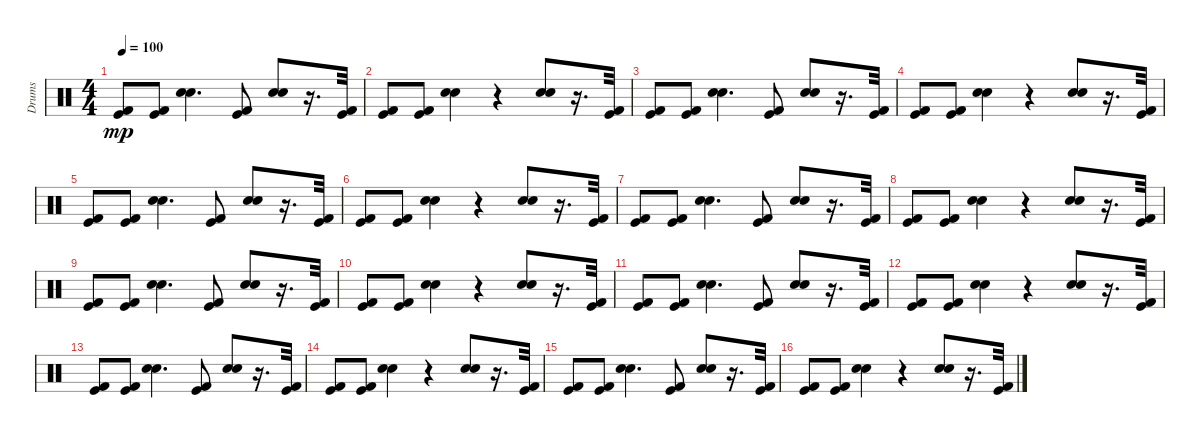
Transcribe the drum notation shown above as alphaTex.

\track ("Drums" "Drums") {instrument percussion}
\staff {score}
\articulation defaults
\ts (4 4)
\tempo 100
\clef neutral
\ks c
("Kick (hit)" "Kick (hit) 2").8{dy mp} ("Kick (hit)" "Kick (hit) 2").8 ("Snare (hit) 2" "Electric Snare (hit)").4{d} ("Kick (hit)" "Kick (hit) 2").8 ("Snare (hit) 2" "Electric Snare (hit)").8 r.16{d} ("Kick (hit)" "Kick (hit) 2").32 |
("Kick (hit)" "Kick (hit) 2").8 ("Kick (hit)" "Kick (hit) 2").8 ("Snare (hit) 2" "Electric Snare (hit)").4 r.4 ("Snare (hit) 2" "Electric Snare (hit)").8 r.16{d} ("Kick (hit)" "Kick (hit) 2").32 |
("Kick (hit)" "Kick (hit) 2").8 ("Kick (hit)" "Kick (hit) 2").8 ("Snare (hit) 2" "Electric Snare (hit)").4{d} ("Kick (hit)" "Kick (hit) 2").8 ("Snare (hit) 2" "Electric Snare (hit)").8 r.16{d} ("Kick (hit)" "Kick (hit) 2").32 |
("Kick (hit)" "Kick (hit) 2").8 ("Kick (hit)" "Kick (hit) 2").8 ("Snare (hit) 2" "Electric Snare (hit)").4 r.4 ("Snare (hit) 2" "Electric Snare (hit)").8 r.16{d} ("Kick (hit)" "Kick (hit) 2").32 |
("Kick (hit)" "Kick (hit) 2").8 ("Kick (hit)" "Kick (hit) 2").8 ("Snare (hit) 2" "Electric Snare (hit)").4{d} ("Kick (hit)" "Kick (hit) 2").8 ("Snare (hit) 2" "Electric Snare (hit)").8 r.16{d} ("Kick (hit)" "Kick (hit) 2").32 |
("Kick (hit)" "Kick (hit) 2").8 ("Kick (hit)" "Kick (hit) 2").8 ("Snare (hit) 2" "Electric Snare (hit)").4 r.4 ("Snare (hit) 2" "Electric Snare (hit)").8 r.16{d} ("Kick (hit)" "Kick (hit) 2").32 |
("Kick (hit)" "Kick (hit) 2").8 ("Kick (hit)" "Kick (hit) 2").8 ("Snare (hit) 2" "Electric Snare (hit)").4{d} ("Kick (hit)" "Kick (hit) 2").8 ("Snare (hit) 2" "Electric Snare (hit)").8 r.16{d} ("Kick (hit)" "Kick (hit) 2").32 |
("Kick (hit)" "Kick (hit) 2").8 ("Kick (hit)" "Kick (hit) 2").8 ("Snare (hit) 2" "Electric Snare (hit)").4 r.4 ("Snare (hit) 2" "Electric Snare (hit)").8 r.16{d} ("Kick (hit)" "Kick (hit) 2").32 |
("Kick (hit)" "Kick (hit) 2").8 ("Kick (hit)" "Kick (hit) 2").8 ("Snare (hit) 2" "Electric Snare (hit)").4{d} ("Kick (hit)" "Kick (hit) 2").8 ("Snare (hit) 2" "Electric Snare (hit)").8 r.16{d} ("Kick (hit)" "Kick (hit) 2").32 |
("Kick (hit)" "Kick (hit) 2").8 ("Kick (hit)" "Kick (hit) 2").8 ("Snare (hit) 2" "Electric Snare (hit)").4 r.4 ("Snare (hit) 2" "Electric Snare (hit)").8 r.16{d} ("Kick (hit)" "Kick (hit) 2").32 |
("Kick (hit)" "Kick (hit) 2").8 ("Kick (hit)" "Kick (hit) 2").8 ("Snare (hit) 2" "Electric Snare (hit)").4{d} ("Kick (hit)" "Kick (hit) 2").8 ("Snare (hit) 2" "Electric Snare (hit)").8 r.16{d} ("Kick (hit)" "Kick (hit) 2").32 |
("Kick (hit)" "Kick (hit) 2").8 ("Kick (hit)" "Kick (hit) 2").8 ("Snare (hit) 2" "Electric Snare (hit)").4 r.4 ("Snare (hit) 2" "Electric Snare (hit)").8 r.16{d} ("Kick (hit)" "Kick (hit) 2").32 |
("Kick (hit)" "Kick (hit) 2").8 ("Kick (hit)" "Kick (hit) 2").8 ("Snare (hit) 2" "Electric Snare (hit)").4{d} ("Kick (hit)" "Kick (hit) 2").8 ("Snare (hit) 2" "Electric Snare (hit)").8 r.16{d} ("Kick (hit)" "Kick (hit) 2").32 |
("Kick (hit)" "Kick (hit) 2").8 ("Kick (hit)" "Kick (hit) 2").8 ("Snare (hit) 2" "Electric Snare (hit)").4 r.4 ("Snare (hit) 2" "Electric Snare (hit)").8 r.16{d} ("Kick (hit)" "Kick (hit) 2").32 |
("Kick (hit)" "Kick (hit) 2").8 ("Kick (hit)" "Kick (hit) 2").8 ("Snare (hit) 2" "Electric Snare (hit)").4{d} ("Kick (hit)" "Kick (hit) 2").8 ("Snare (hit) 2" "Electric Snare (hit)").8 r.16{d} ("Kick (hit)" "Kick (hit) 2").32 |
("Kick (hit)" "Kick (hit) 2").8 ("Kick (hit)" "Kick (hit) 2").8 ("Snare (hit) 2" "Electric Snare (hit)").4 r.4 ("Snare (hit) 2" "Electric Snare (hit)").8 r.16{d} ("Kick (hit)" "Kick (hit) 2").32
